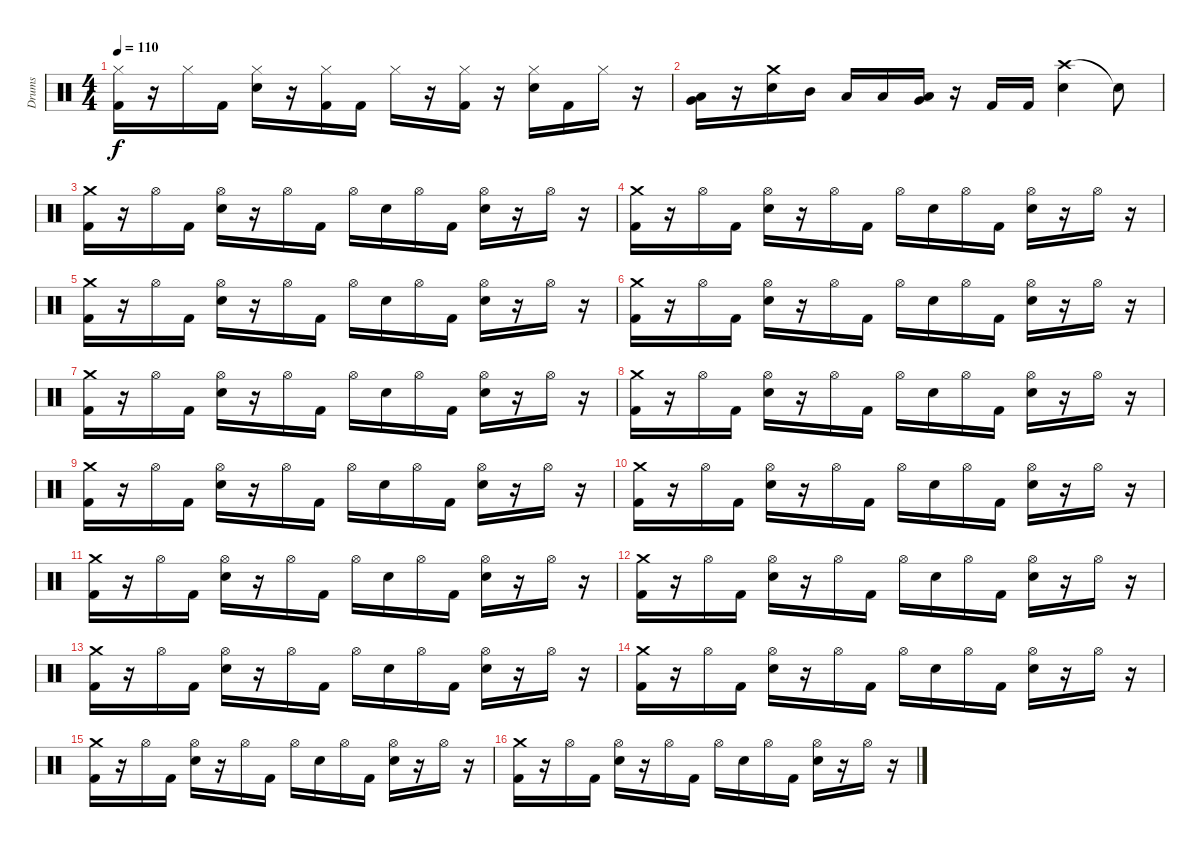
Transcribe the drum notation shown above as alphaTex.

\track ("Drums" "Drums") {instrument percussion}
\staff {score}
\articulation defaults
\ts (4 4)
\tempo 110
\clef neutral
\ks c
("Hi-Hat (closed)" "Kick (hit) 2").16{dy f} r.16 "Hi-Hat (closed)".16 "Kick (hit) 2".16 ("Hi-Hat (closed)" "Electric Snare (hit)").16 r.16 ("Hi-Hat (closed)" "Kick (hit) 2").16 "Kick (hit) 2".16 "Hi-Hat (closed)".16 r.16 ("Hi-Hat (closed)" "Kick (hit) 2").16 r.16 ("Hi-Hat (closed)" "Electric Snare (hit)").16 "Kick (hit) 2".16 "Hi-Hat (closed)".16 r.16 |
("Low Tom (hit)" "Very Low Tom (hit)").16 r.16 ("Crash medium (hit)" "Electric Snare (hit)").16 "Mid Tom (hit)".16 "Low Tom (hit)".16 "Low Tom (hit)".16 ("Very Low Tom (hit)" "Low Floor Tom (hit)").16 r.16 "Kick (hit) 2".16 "Kick (hit) 2".16 ("Crash high (hit)" "Electric Snare (hit)").4 "Snare (hit)"{t}.8 |
("Crash medium (hit)" "Kick (hit) 2").16 r.16 "Hi-Hat (open)".16 "Kick (hit) 2".16 ("Hi-Hat (open)" "Electric Snare (hit)").16 r.16 "Hi-Hat (open)".16 "Kick (hit) 2".16 "Hi-Hat (open)".16 "Electric Snare (hit)".16 "Hi-Hat (open)".16 "Kick (hit) 2".16 ("Hi-Hat (open)" "Electric Snare (hit)").16 r.16 "Hi-Hat (open)".16 r.16 |
("Crash medium (hit)" "Kick (hit) 2").16 r.16 "Hi-Hat (open)".16 "Kick (hit) 2".16 ("Hi-Hat (open)" "Electric Snare (hit)").16 r.16 "Hi-Hat (open)".16 "Kick (hit) 2".16 "Hi-Hat (open)".16 "Electric Snare (hit)".16 "Hi-Hat (open)".16 "Kick (hit) 2".16 ("Hi-Hat (open)" "Electric Snare (hit)").16 r.16 "Hi-Hat (open)".16 r.16 |
("Crash medium (hit)" "Kick (hit) 2").16 r.16 "Hi-Hat (open)".16 "Kick (hit) 2".16 ("Hi-Hat (open)" "Electric Snare (hit)").16 r.16 "Hi-Hat (open)".16 "Kick (hit) 2".16 "Hi-Hat (open)".16 "Electric Snare (hit)".16 "Hi-Hat (open)".16 "Kick (hit) 2".16 ("Hi-Hat (open)" "Electric Snare (hit)").16 r.16 "Hi-Hat (open)".16 r.16 |
("Crash medium (hit)" "Kick (hit) 2").16 r.16 "Hi-Hat (open)".16 "Kick (hit) 2".16 ("Hi-Hat (open)" "Electric Snare (hit)").16 r.16 "Hi-Hat (open)".16 "Kick (hit) 2".16 "Hi-Hat (open)".16 "Electric Snare (hit)".16 "Hi-Hat (open)".16 "Kick (hit) 2".16 ("Hi-Hat (open)" "Electric Snare (hit)").16 r.16 "Hi-Hat (open)".16 r.16 |
("Crash medium (hit)" "Kick (hit) 2").16 r.16 "Hi-Hat (open)".16 "Kick (hit) 2".16 ("Hi-Hat (open)" "Electric Snare (hit)").16 r.16 "Hi-Hat (open)".16 "Kick (hit) 2".16 "Hi-Hat (open)".16 "Electric Snare (hit)".16 "Hi-Hat (open)".16 "Kick (hit) 2".16 ("Hi-Hat (open)" "Electric Snare (hit)").16 r.16 "Hi-Hat (open)".16 r.16 |
("Crash medium (hit)" "Kick (hit) 2").16 r.16 "Hi-Hat (open)".16 "Kick (hit) 2".16 ("Hi-Hat (open)" "Electric Snare (hit)").16 r.16 "Hi-Hat (open)".16 "Kick (hit) 2".16 "Hi-Hat (open)".16 "Electric Snare (hit)".16 "Hi-Hat (open)".16 "Kick (hit) 2".16 ("Hi-Hat (open)" "Electric Snare (hit)").16 r.16 "Hi-Hat (open)".16 r.16 |
("Crash medium (hit)" "Kick (hit) 2").16 r.16 "Hi-Hat (open)".16 "Kick (hit) 2".16 ("Hi-Hat (open)" "Electric Snare (hit)").16 r.16 "Hi-Hat (open)".16 "Kick (hit) 2".16 "Hi-Hat (open)".16 "Electric Snare (hit)".16 "Hi-Hat (open)".16 "Kick (hit) 2".16 ("Hi-Hat (open)" "Electric Snare (hit)").16 r.16 "Hi-Hat (open)".16 r.16 |
("Crash medium (hit)" "Kick (hit) 2").16 r.16 "Hi-Hat (open)".16 "Kick (hit) 2".16 ("Hi-Hat (open)" "Electric Snare (hit)").16 r.16 "Hi-Hat (open)".16 "Kick (hit) 2".16 "Hi-Hat (open)".16 "Electric Snare (hit)".16 "Hi-Hat (open)".16 "Kick (hit) 2".16 ("Hi-Hat (open)" "Electric Snare (hit)").16 r.16 "Hi-Hat (open)".16 r.16 |
("Crash medium (hit)" "Kick (hit) 2").16 r.16 "Hi-Hat (open)".16 "Kick (hit) 2".16 ("Hi-Hat (open)" "Electric Snare (hit)").16 r.16 "Hi-Hat (open)".16 "Kick (hit) 2".16 "Hi-Hat (open)".16 "Electric Snare (hit)".16 "Hi-Hat (open)".16 "Kick (hit) 2".16 ("Hi-Hat (open)" "Electric Snare (hit)").16 r.16 "Hi-Hat (open)".16 r.16 |
("Crash medium (hit)" "Kick (hit) 2").16 r.16 "Hi-Hat (open)".16 "Kick (hit) 2".16 ("Hi-Hat (open)" "Electric Snare (hit)").16 r.16 "Hi-Hat (open)".16 "Kick (hit) 2".16 "Hi-Hat (open)".16 "Electric Snare (hit)".16 "Hi-Hat (open)".16 "Kick (hit) 2".16 ("Hi-Hat (open)" "Electric Snare (hit)").16 r.16 "Hi-Hat (open)".16 r.16 |
("Crash medium (hit)" "Kick (hit) 2").16 r.16 "Hi-Hat (open)".16 "Kick (hit) 2".16 ("Hi-Hat (open)" "Electric Snare (hit)").16 r.16 "Hi-Hat (open)".16 "Kick (hit) 2".16 "Hi-Hat (open)".16 "Electric Snare (hit)".16 "Hi-Hat (open)".16 "Kick (hit) 2".16 ("Hi-Hat (open)" "Electric Snare (hit)").16 r.16 "Hi-Hat (open)".16 r.16 |
("Crash medium (hit)" "Kick (hit) 2").16 r.16 "Hi-Hat (open)".16 "Kick (hit) 2".16 ("Hi-Hat (open)" "Electric Snare (hit)").16 r.16 "Hi-Hat (open)".16 "Kick (hit) 2".16 "Hi-Hat (open)".16 "Electric Snare (hit)".16 "Hi-Hat (open)".16 "Kick (hit) 2".16 ("Hi-Hat (open)" "Electric Snare (hit)").16 r.16 "Hi-Hat (open)".16 r.16 |
("Crash medium (hit)" "Kick (hit) 2").16 r.16 "Hi-Hat (open)".16 "Kick (hit) 2".16 ("Hi-Hat (open)" "Electric Snare (hit)").16 r.16 "Hi-Hat (open)".16 "Kick (hit) 2".16 "Hi-Hat (open)".16 "Electric Snare (hit)".16 "Hi-Hat (open)".16 "Kick (hit) 2".16 ("Hi-Hat (open)" "Electric Snare (hit)").16 r.16 "Hi-Hat (open)".16 r.16 |
("Crash medium (hit)" "Kick (hit) 2").16 r.16 "Hi-Hat (open)".16 "Kick (hit) 2".16 ("Hi-Hat (open)" "Electric Snare (hit)").16 r.16 "Hi-Hat (open)".16 "Kick (hit) 2".16 "Hi-Hat (open)".16 "Electric Snare (hit)".16 "Hi-Hat (open)".16 "Kick (hit) 2".16 ("Hi-Hat (open)" "Electric Snare (hit)").16 r.16 "Hi-Hat (open)".16 r.16
